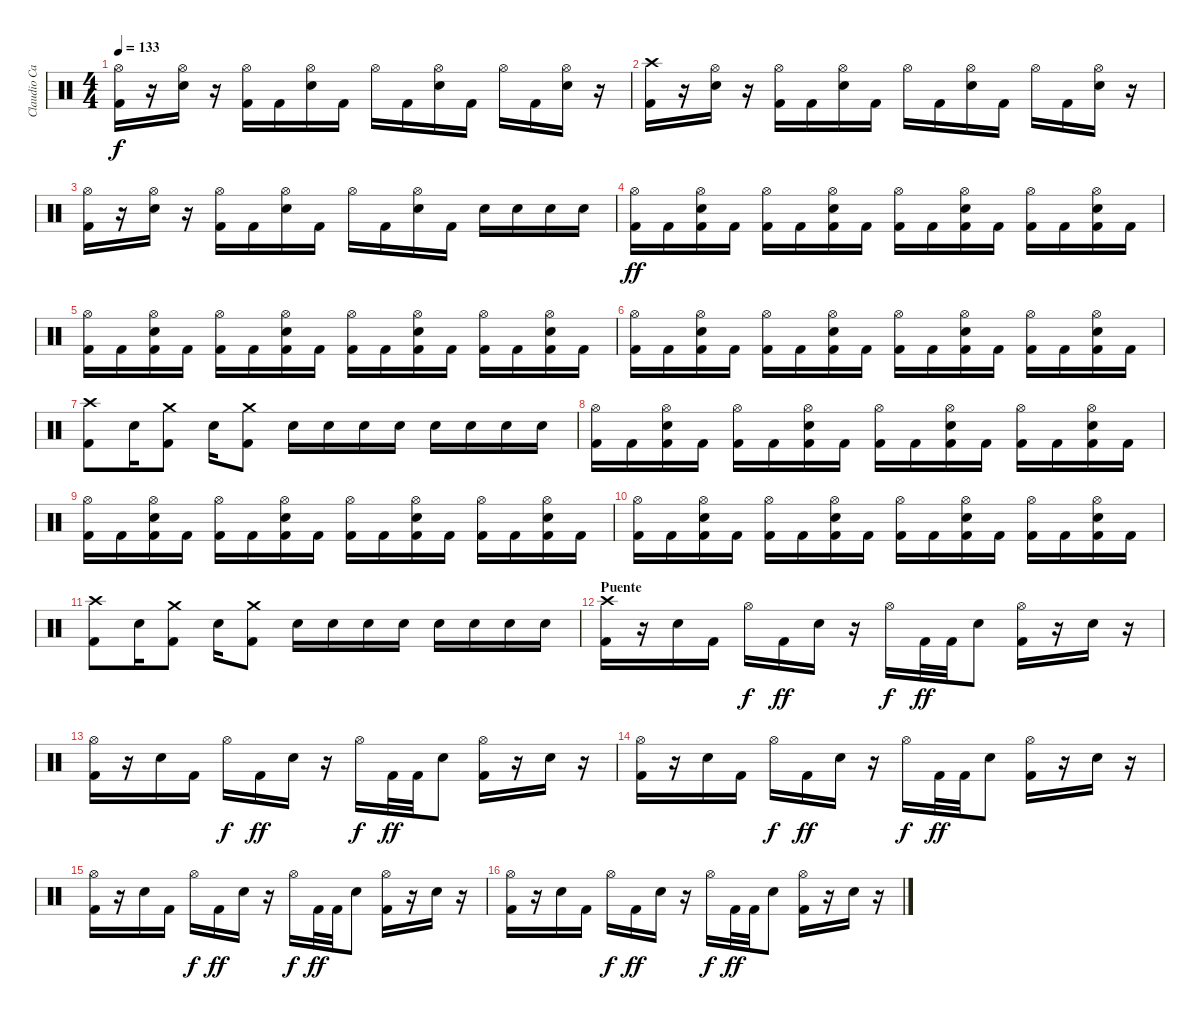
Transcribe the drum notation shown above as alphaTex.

\track ("Claudio Cardaci (bateria)" "Claudio Ca") {instrument percussion}
\staff {score}
\articulation defaults
\ts (4 4)
\tempo 133
\clef neutral
\ks c
("Hi-Hat (open)" "Kick (hit) 2").16{dy f} r.16 ("Hi-Hat (open)" "Snare (hit) 2").16 r.16 ("Hi-Hat (open)" "Kick (hit) 2").16 "Kick (hit) 2".16 ("Hi-Hat (open)" "Snare (hit) 2").16 "Kick (hit) 2".16 "Hi-Hat (open)".16 "Kick (hit) 2".16 ("Hi-Hat (open)" "Snare (hit) 2").16 "Kick (hit) 2".16 "Hi-Hat (open)".16 "Kick (hit) 2".16 ("Hi-Hat (open)" "Snare (hit) 2").16 r.16 |
("Crash high (hit)" "Kick (hit) 2").16 r.16 ("Hi-Hat (open)" "Snare (hit) 2").16 r.16 ("Hi-Hat (open)" "Kick (hit) 2").16 "Kick (hit) 2".16 ("Hi-Hat (open)" "Snare (hit) 2").16 "Kick (hit) 2".16 "Hi-Hat (open)".16 "Kick (hit) 2".16 ("Hi-Hat (open)" "Snare (hit) 2").16 "Kick (hit) 2".16 "Hi-Hat (open)".16 "Kick (hit) 2".16 ("Hi-Hat (open)" "Snare (hit) 2").16 r.16 |
("Hi-Hat (open)" "Kick (hit) 2").16 r.16 ("Hi-Hat (open)" "Snare (hit) 2").16 r.16 ("Hi-Hat (open)" "Kick (hit) 2").16 "Kick (hit) 2".16 ("Hi-Hat (open)" "Snare (hit) 2").16 "Kick (hit) 2".16 "Hi-Hat (open)".16 "Kick (hit) 2".16 ("Hi-Hat (open)" "Snare (hit) 2").16 "Kick (hit) 2".16 "Electric Snare (hit)".16 "Electric Snare (hit)".16 "Electric Snare (hit)".16 "Electric Snare (hit)".16 |
("Hi-Hat (open)" "Kick (hit) 2").16{dy ff} "Kick (hit) 2".16 ("Hi-Hat (open)" "Snare (hit) 2" "Kick (hit) 2").16 "Kick (hit) 2".16 ("Hi-Hat (open)" "Kick (hit) 2").16 "Kick (hit) 2".16 ("Hi-Hat (open)" "Snare (hit) 2" "Kick (hit) 2").16 "Kick (hit) 2".16 ("Hi-Hat (open)" "Kick (hit) 2").16 "Kick (hit) 2".16 ("Hi-Hat (open)" "Snare (hit) 2" "Kick (hit) 2").16 "Kick (hit) 2".16 ("Hi-Hat (open)" "Kick (hit) 2").16 "Kick (hit) 2".16 ("Hi-Hat (open)" "Snare (hit) 2" "Kick (hit) 2").16 "Kick (hit) 2".16 |
("Hi-Hat (open)" "Kick (hit) 2").16 "Kick (hit) 2".16 ("Hi-Hat (open)" "Snare (hit) 2" "Kick (hit) 2").16 "Kick (hit) 2".16 ("Hi-Hat (open)" "Kick (hit) 2").16 "Kick (hit) 2".16 ("Hi-Hat (open)" "Snare (hit) 2" "Kick (hit) 2").16 "Kick (hit) 2".16 ("Hi-Hat (open)" "Kick (hit) 2").16 "Kick (hit) 2".16 ("Hi-Hat (open)" "Snare (hit) 2" "Kick (hit) 2").16 "Kick (hit) 2".16 ("Hi-Hat (open)" "Kick (hit) 2").16 "Kick (hit) 2".16 ("Hi-Hat (open)" "Snare (hit) 2" "Kick (hit) 2").16 "Kick (hit) 2".16 |
("Hi-Hat (open)" "Kick (hit) 2").16 "Kick (hit) 2".16 ("Hi-Hat (open)" "Snare (hit) 2" "Kick (hit) 2").16 "Kick (hit) 2".16 ("Hi-Hat (open)" "Kick (hit) 2").16 "Kick (hit) 2".16 ("Hi-Hat (open)" "Snare (hit) 2" "Kick (hit) 2").16 "Kick (hit) 2".16 ("Hi-Hat (open)" "Kick (hit) 2").16 "Kick (hit) 2".16 ("Hi-Hat (open)" "Snare (hit) 2" "Kick (hit) 2").16 "Kick (hit) 2".16 ("Hi-Hat (open)" "Kick (hit) 2").16 "Kick (hit) 2".16 ("Hi-Hat (open)" "Snare (hit) 2" "Kick (hit) 2").16 "Kick (hit) 2".16 |
("Crash high (hit)" "Kick (hit) 2").8 "Snare (hit) 2".16 ("Crash medium (hit)" "Kick (hit) 2").8 "Snare (hit) 2".16 ("Crash medium (hit)" "Kick (hit) 2").8 "Snare (hit) 2".16 "Snare (hit) 2".16 "Snare (hit) 2".16 "Snare (hit) 2".16 "Snare (hit) 2".16 "Snare (hit) 2".16 "Snare (hit) 2".16 "Snare (hit) 2".16 |
("Hi-Hat (open)" "Kick (hit) 2").16 "Kick (hit) 2".16 ("Hi-Hat (open)" "Snare (hit) 2" "Kick (hit) 2").16 "Kick (hit) 2".16 ("Hi-Hat (open)" "Kick (hit) 2").16 "Kick (hit) 2".16 ("Hi-Hat (open)" "Snare (hit) 2" "Kick (hit) 2").16 "Kick (hit) 2".16 ("Hi-Hat (open)" "Kick (hit) 2").16 "Kick (hit) 2".16 ("Hi-Hat (open)" "Snare (hit) 2" "Kick (hit) 2").16 "Kick (hit) 2".16 ("Hi-Hat (open)" "Kick (hit) 2").16 "Kick (hit) 2".16 ("Hi-Hat (open)" "Snare (hit) 2" "Kick (hit) 2").16 "Kick (hit) 2".16 |
("Hi-Hat (open)" "Kick (hit) 2").16 "Kick (hit) 2".16 ("Hi-Hat (open)" "Snare (hit) 2" "Kick (hit) 2").16 "Kick (hit) 2".16 ("Hi-Hat (open)" "Kick (hit) 2").16 "Kick (hit) 2".16 ("Hi-Hat (open)" "Snare (hit) 2" "Kick (hit) 2").16 "Kick (hit) 2".16 ("Hi-Hat (open)" "Kick (hit) 2").16 "Kick (hit) 2".16 ("Hi-Hat (open)" "Snare (hit) 2" "Kick (hit) 2").16 "Kick (hit) 2".16 ("Hi-Hat (open)" "Kick (hit) 2").16 "Kick (hit) 2".16 ("Hi-Hat (open)" "Snare (hit) 2" "Kick (hit) 2").16 "Kick (hit) 2".16 |
("Hi-Hat (open)" "Kick (hit) 2").16 "Kick (hit) 2".16 ("Hi-Hat (open)" "Snare (hit) 2" "Kick (hit) 2").16 "Kick (hit) 2".16 ("Hi-Hat (open)" "Kick (hit) 2").16 "Kick (hit) 2".16 ("Hi-Hat (open)" "Snare (hit) 2" "Kick (hit) 2").16 "Kick (hit) 2".16 ("Hi-Hat (open)" "Kick (hit) 2").16 "Kick (hit) 2".16 ("Hi-Hat (open)" "Snare (hit) 2" "Kick (hit) 2").16 "Kick (hit) 2".16 ("Hi-Hat (open)" "Kick (hit) 2").16 "Kick (hit) 2".16 ("Hi-Hat (open)" "Snare (hit) 2" "Kick (hit) 2").16 "Kick (hit) 2".16 |
("Crash high (hit)" "Kick (hit) 2").8 "Snare (hit) 2".16 ("Crash medium (hit)" "Kick (hit) 2").8 "Snare (hit) 2".16 ("Crash medium (hit)" "Kick (hit) 2").8 "Snare (hit) 2".16 "Snare (hit) 2".16 "Snare (hit) 2".16 "Snare (hit) 2".16 "Snare (hit) 2".16 "Snare (hit) 2".16 "Snare (hit) 2".16 "Snare (hit) 2".16 |
\section ("" "Puente")
("Crash high (hit)" "Kick (hit) 2").16 r.16 "Snare (hit) 2".16 "Kick (hit) 2".16 "Hi-Hat (open)".16{dy f} "Kick (hit) 2".16{dy ff} "Snare (hit) 2".16 r.16 "Hi-Hat (open)".16{dy f} "Kick (hit) 2".32{dy ff} "Kick (hit) 2".32 "Snare (hit) 2".8 ("Hi-Hat (open)" "Kick (hit) 2").16 r.16 "Snare (hit) 2".16 r.16 |
("Hi-Hat (open)" "Kick (hit) 2").16 r.16 "Snare (hit) 2".16 "Kick (hit) 2".16 "Hi-Hat (open)".16{dy f} "Kick (hit) 2".16{dy ff} "Snare (hit) 2".16 r.16 "Hi-Hat (open)".16{dy f} "Kick (hit) 2".32{dy ff} "Kick (hit) 2".32 "Snare (hit) 2".8 ("Hi-Hat (open)" "Kick (hit) 2").16 r.16 "Snare (hit) 2".16 r.16 |
("Hi-Hat (open)" "Kick (hit) 2").16 r.16 "Snare (hit) 2".16 "Kick (hit) 2".16 "Hi-Hat (open)".16{dy f} "Kick (hit) 2".16{dy ff} "Snare (hit) 2".16 r.16 "Hi-Hat (open)".16{dy f} "Kick (hit) 2".32{dy ff} "Kick (hit) 2".32 "Snare (hit) 2".8 ("Hi-Hat (open)" "Kick (hit) 2").16 r.16 "Snare (hit) 2".16 r.16 |
("Hi-Hat (open)" "Kick (hit) 2").16 r.16 "Snare (hit) 2".16 "Kick (hit) 2".16 "Hi-Hat (open)".16{dy f} "Kick (hit) 2".16{dy ff} "Snare (hit) 2".16 r.16 "Hi-Hat (open)".16{dy f} "Kick (hit) 2".32{dy ff} "Kick (hit) 2".32 "Snare (hit) 2".8 ("Hi-Hat (open)" "Kick (hit) 2").16 r.16 "Snare (hit) 2".16 r.16 |
("Hi-Hat (open)" "Kick (hit) 2").16 r.16 "Snare (hit) 2".16 "Kick (hit) 2".16 "Hi-Hat (open)".16{dy f} "Kick (hit) 2".16{dy ff} "Snare (hit) 2".16 r.16 "Hi-Hat (open)".16{dy f} "Kick (hit) 2".32{dy ff} "Kick (hit) 2".32 "Snare (hit) 2".8 ("Hi-Hat (open)" "Kick (hit) 2").16 r.16 "Snare (hit) 2".16 r.16
